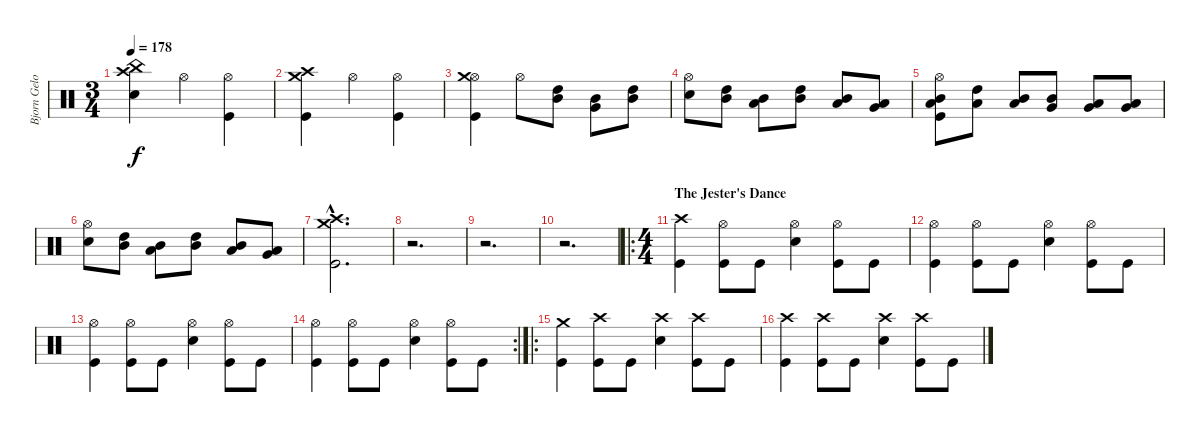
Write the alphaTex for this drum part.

\track ("Bjorn Gelotte-Drum" "Bjorn Gelo") {instrument percussion}
\staff {score}
\articulation defaults
\ts (3 4)
\tempo 178
\clef neutral
\ks c
("Electric Snare (hit)" "China (hit)" "Crash high (hit)").4{dy f} "Hi-Hat (open)".4 ("Kick (hit)" "Hi-Hat (open)").4 |
("Kick (hit)" "Crash high (hit)" "Crash medium (hit)").4 "Hi-Hat (open)".4 ("Kick (hit)" "Hi-Hat (open)").4 |
("Kick (hit)" "Hi-Hat (open)" "Crash medium (hit)").4 "Hi-Hat (open)".8 ("Mid Tom (hit)" "High Tom (hit)").8 ("Very Low Tom (hit)" "Mid Tom (hit)").8 ("Mid Tom (hit)" "High Tom (hit)").8 |
("Electric Snare (hit)" "Hi-Hat (open)").8 ("Mid Tom (hit)" "High Tom (hit)").8 ("Low Tom (hit)" "Mid Tom (hit)").8 ("Mid Tom (hit)" "High Tom (hit)").8 ("Low Tom (hit)" "Mid Tom (hit)").8 ("Very Low Tom (hit)" "Low Tom (hit)").8 |
("Kick (hit)" "Low Tom (hit)" "Mid Tom (hit)" "Hi-Hat (open)").8 ("Low Tom (hit)" "High Tom (hit)").8 ("Low Tom (hit)" "Mid Tom (hit)").8 ("Very Low Tom (hit)" "Mid Tom (hit)").8 ("Very Low Tom (hit)" "Low Tom (hit)").8 ("Low Floor Tom (hit)" "Very Low Tom (hit)").8 |
("Electric Snare (hit)" "Hi-Hat (open)").8 ("Mid Tom (hit)" "High Tom (hit)").8 ("Low Tom (hit)" "Mid Tom (hit)").8 ("Mid Tom (hit)" "High Tom (hit)").8 ("Low Tom (hit)" "Mid Tom (hit)").8 ("Very Low Tom (hit)" "Low Tom (hit)").8 |
("Kick (hit)"{hac} "Crash high (hit)"{hac} "Crash medium (hit)"{hac}).2{d} |
r.2{d} |
r.2{d} |
r.2{d} |
\ro
\ts (4 4)
\section ("" "The Jester's Dance")
("Crash high (hit)" "Kick (hit)").4 ("Hi-Hat (open)" "Kick (hit)").8 "Kick (hit)".8 ("Hi-Hat (open)" "Electric Snare (hit)").4 ("Hi-Hat (open)" "Kick (hit)").8 "Kick (hit)".8 |
("Hi-Hat (open)" "Kick (hit)").4 ("Hi-Hat (open)" "Kick (hit)").8 "Kick (hit)".8 ("Hi-Hat (open)" "Electric Snare (hit)").4 ("Hi-Hat (open)" "Kick (hit)").8 "Kick (hit)".8 |
("Hi-Hat (open)" "Kick (hit)").4 ("Hi-Hat (open)" "Kick (hit)").8 "Kick (hit)".8 ("Hi-Hat (open)" "Electric Snare (hit)").4 ("Hi-Hat (open)" "Kick (hit)").8 "Kick (hit)".8 |
\rc 2
("Hi-Hat (open)" "Kick (hit)").4 ("Hi-Hat (open)" "Kick (hit)").8 "Kick (hit)".8 ("Hi-Hat (open)" "Electric Snare (hit)").4 ("Hi-Hat (open)" "Kick (hit)").8 "Kick (hit)".8 |
\ro
("Crash medium (hit)" "Kick (hit)").4 ("Crash high (hit)" "Kick (hit)").8 "Kick (hit)".8 ("Crash high (hit)" "Electric Snare (hit)").4 ("Crash high (hit)" "Kick (hit)").8 "Kick (hit)".8 |
("Crash high (hit)" "Kick (hit)").4 ("Crash high (hit)" "Kick (hit)").8 "Kick (hit)".8 ("Crash high (hit)" "Electric Snare (hit)").4 ("Crash high (hit)" "Kick (hit)").8 "Kick (hit)".8
